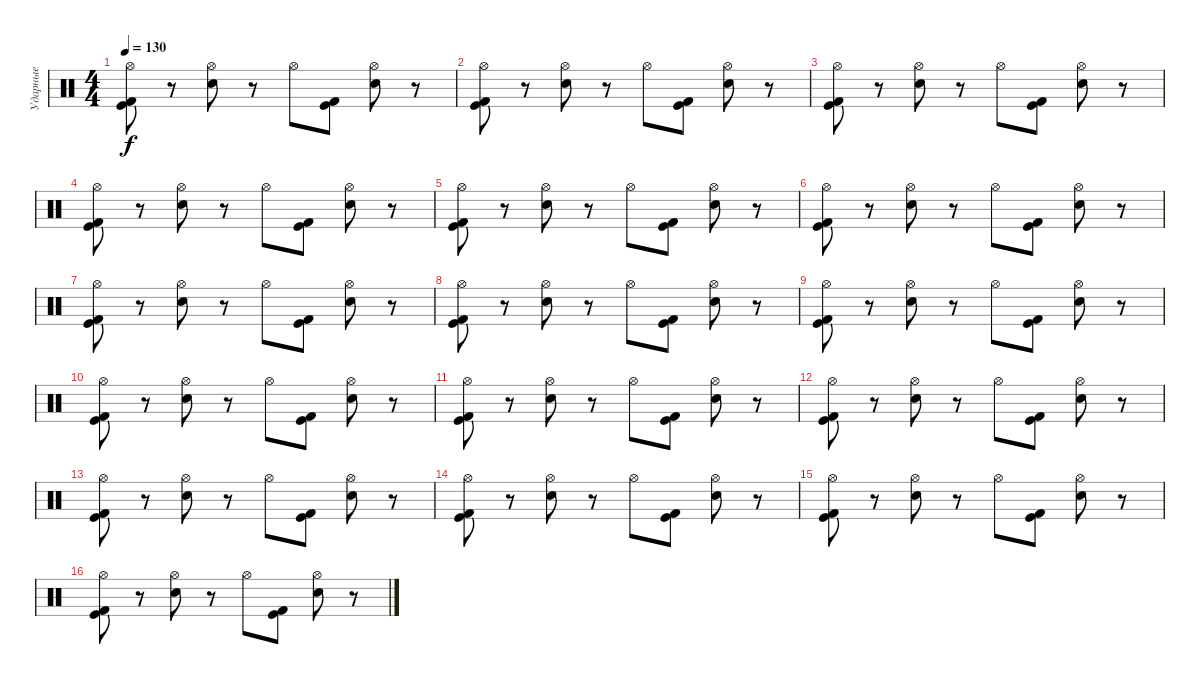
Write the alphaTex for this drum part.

\track ("Ударные" "Ударные") {instrument percussion}
\staff {score}
\articulation defaults
\ts (4 4)
\tempo 130
\clef neutral
\ks c
("Hi-Hat (open)" "Kick (hit)" "Kick (hit) 2").8{dy f} r.8 ("Hi-Hat (open)" "Electric Snare (hit)").8 r.8 "Hi-Hat (open)".8 ("Kick (hit)" "Kick (hit) 2").8 ("Hi-Hat (open)" "Electric Snare (hit)").8 r.8 |
("Hi-Hat (open)" "Kick (hit)" "Kick (hit) 2").8 r.8 ("Hi-Hat (open)" "Electric Snare (hit)").8 r.8 "Hi-Hat (open)".8 ("Kick (hit)" "Kick (hit) 2").8 ("Hi-Hat (open)" "Electric Snare (hit)").8 r.8 |
("Hi-Hat (open)" "Kick (hit)" "Kick (hit) 2").8 r.8 ("Hi-Hat (open)" "Electric Snare (hit)").8 r.8 "Hi-Hat (open)".8 ("Kick (hit)" "Kick (hit) 2").8 ("Hi-Hat (open)" "Electric Snare (hit)").8 r.8 |
("Hi-Hat (open)" "Kick (hit)" "Kick (hit) 2").8 r.8 ("Hi-Hat (open)" "Electric Snare (hit)").8 r.8 "Hi-Hat (open)".8 ("Kick (hit)" "Kick (hit) 2").8 ("Hi-Hat (open)" "Electric Snare (hit)").8 r.8 |
("Hi-Hat (open)" "Kick (hit)" "Kick (hit) 2").8 r.8 ("Hi-Hat (open)" "Electric Snare (hit)").8 r.8 "Hi-Hat (open)".8 ("Kick (hit)" "Kick (hit) 2").8 ("Hi-Hat (open)" "Electric Snare (hit)").8 r.8 |
("Hi-Hat (open)" "Kick (hit)" "Kick (hit) 2").8 r.8 ("Hi-Hat (open)" "Electric Snare (hit)").8 r.8 "Hi-Hat (open)".8 ("Kick (hit)" "Kick (hit) 2").8 ("Hi-Hat (open)" "Electric Snare (hit)").8 r.8 |
("Hi-Hat (open)" "Kick (hit)" "Kick (hit) 2").8 r.8 ("Hi-Hat (open)" "Electric Snare (hit)").8 r.8 "Hi-Hat (open)".8 ("Kick (hit)" "Kick (hit) 2").8 ("Hi-Hat (open)" "Electric Snare (hit)").8 r.8 |
("Hi-Hat (open)" "Kick (hit)" "Kick (hit) 2").8 r.8 ("Hi-Hat (open)" "Electric Snare (hit)").8 r.8 "Hi-Hat (open)".8 ("Kick (hit)" "Kick (hit) 2").8 ("Hi-Hat (open)" "Electric Snare (hit)").8 r.8 |
("Hi-Hat (open)" "Kick (hit)" "Kick (hit) 2").8 r.8 ("Hi-Hat (open)" "Electric Snare (hit)").8 r.8 "Hi-Hat (open)".8 ("Kick (hit)" "Kick (hit) 2").8 ("Hi-Hat (open)" "Electric Snare (hit)").8 r.8 |
("Hi-Hat (open)" "Kick (hit)" "Kick (hit) 2").8 r.8 ("Hi-Hat (open)" "Electric Snare (hit)").8 r.8 "Hi-Hat (open)".8 ("Kick (hit)" "Kick (hit) 2").8 ("Hi-Hat (open)" "Electric Snare (hit)").8 r.8 |
("Hi-Hat (open)" "Kick (hit)" "Kick (hit) 2").8 r.8 ("Hi-Hat (open)" "Electric Snare (hit)").8 r.8 "Hi-Hat (open)".8 ("Kick (hit)" "Kick (hit) 2").8 ("Hi-Hat (open)" "Electric Snare (hit)").8 r.8 |
("Hi-Hat (open)" "Kick (hit)" "Kick (hit) 2").8 r.8 ("Hi-Hat (open)" "Electric Snare (hit)").8 r.8 "Hi-Hat (open)".8 ("Kick (hit)" "Kick (hit) 2").8 ("Hi-Hat (open)" "Electric Snare (hit)").8 r.8 |
("Hi-Hat (open)" "Kick (hit)" "Kick (hit) 2").8 r.8 ("Hi-Hat (open)" "Electric Snare (hit)").8 r.8 "Hi-Hat (open)".8 ("Kick (hit)" "Kick (hit) 2").8 ("Hi-Hat (open)" "Electric Snare (hit)").8 r.8 |
("Hi-Hat (open)" "Kick (hit)" "Kick (hit) 2").8 r.8 ("Hi-Hat (open)" "Electric Snare (hit)").8 r.8 "Hi-Hat (open)".8 ("Kick (hit)" "Kick (hit) 2").8 ("Hi-Hat (open)" "Electric Snare (hit)").8 r.8 |
("Hi-Hat (open)" "Kick (hit)" "Kick (hit) 2").8 r.8 ("Hi-Hat (open)" "Electric Snare (hit)").8 r.8 "Hi-Hat (open)".8 ("Kick (hit)" "Kick (hit) 2").8 ("Hi-Hat (open)" "Electric Snare (hit)").8 r.8 |
("Hi-Hat (open)" "Kick (hit)" "Kick (hit) 2").8 r.8 ("Hi-Hat (open)" "Electric Snare (hit)").8 r.8 "Hi-Hat (open)".8 ("Kick (hit)" "Kick (hit) 2").8 ("Hi-Hat (open)" "Electric Snare (hit)").8 r.8
